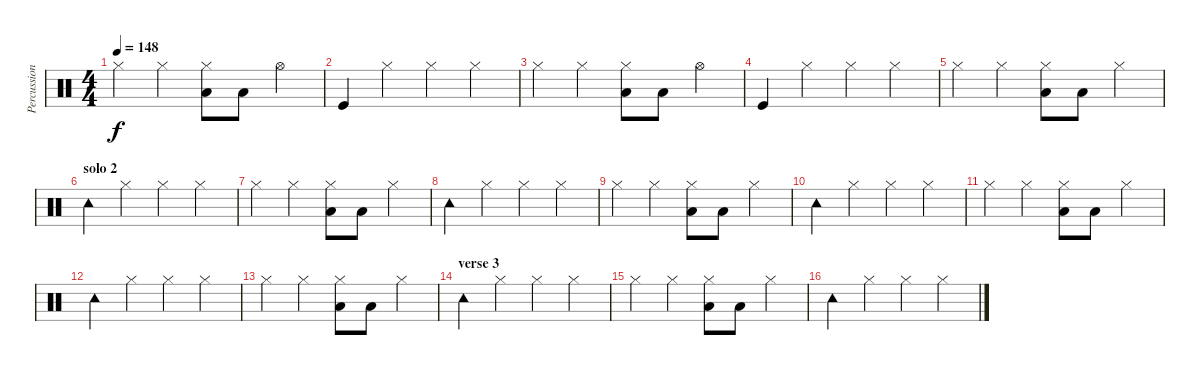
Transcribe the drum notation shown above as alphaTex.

\track ("Percussions" "Percussion") {instrument percussion}
\staff {score}
\articulation defaults
\ts (4 4)
\tempo 148
\clef neutral
\ks c "Hi-Hat (closed)".4{dy f} "Hi-Hat (closed)".4
("Hi-Hat (closed)" "Low Tom (hit)").8 "Low Tom (hit)".8 "Hi-Hat (open)".4 |
"Kick (hit)".4 "Hi-Hat (closed)".4 "Hi-Hat (closed)".4 "Hi-Hat (closed)".4 |
"Hi-Hat (closed)".4 "Hi-Hat (closed)".4 ("Hi-Hat (closed)" "Low Tom (hit)").8 "Low Tom (hit)".8 "Hi-Hat (open)".4 |
"Kick (hit)".4 "Hi-Hat (closed)".4 "Hi-Hat (closed)".4 "Hi-Hat (closed)".4 |
"Hi-Hat (closed)".4 "Hi-Hat (closed)".4 ("Hi-Hat (closed)" "Low Tom (hit)").8 "Low Tom (hit)".8 "Hi-Hat (closed)".4 |
\section ("" "solo 2")
"Tambourine (hit)".4 "Hi-Hat (closed)".4 "Hi-Hat (closed)".4 "Hi-Hat (closed)".4 |
"Hi-Hat (closed)".4 "Hi-Hat (closed)".4 ("Hi-Hat (closed)" "Low Tom (hit)").8 "Low Tom (hit)".8 "Hi-Hat (closed)".4 |
"Tambourine (hit)".4 "Hi-Hat (closed)".4 "Hi-Hat (closed)".4 "Hi-Hat (closed)".4 |
"Hi-Hat (closed)".4 "Hi-Hat (closed)".4 ("Hi-Hat (closed)" "Low Tom (hit)").8 "Low Tom (hit)".8 "Hi-Hat (closed)".4 |
"Tambourine (hit)".4 "Hi-Hat (closed)".4 "Hi-Hat (closed)".4 "Hi-Hat (closed)".4 |
"Hi-Hat (closed)".4 "Hi-Hat (closed)".4 ("Hi-Hat (closed)" "Low Tom (hit)").8 "Low Tom (hit)".8 "Hi-Hat (closed)".4 |
"Tambourine (hit)".4 "Hi-Hat (closed)".4 "Hi-Hat (closed)".4 "Hi-Hat (closed)".4 |
"Hi-Hat (closed)".4 "Hi-Hat (closed)".4 ("Hi-Hat (closed)" "Low Tom (hit)").8 "Low Tom (hit)".8 "Hi-Hat (closed)".4 |
\section ("" "verse 3")
"Tambourine (hit)".4 "Hi-Hat (closed)".4 "Hi-Hat (closed)".4 "Hi-Hat (closed)".4 |
"Hi-Hat (closed)".4 "Hi-Hat (closed)".4 ("Hi-Hat (closed)" "Low Tom (hit)").8 "Low Tom (hit)".8 "Hi-Hat (closed)".4 |
"Tambourine (hit)".4 "Hi-Hat (closed)".4 "Hi-Hat (closed)".4 "Hi-Hat (closed)".4
